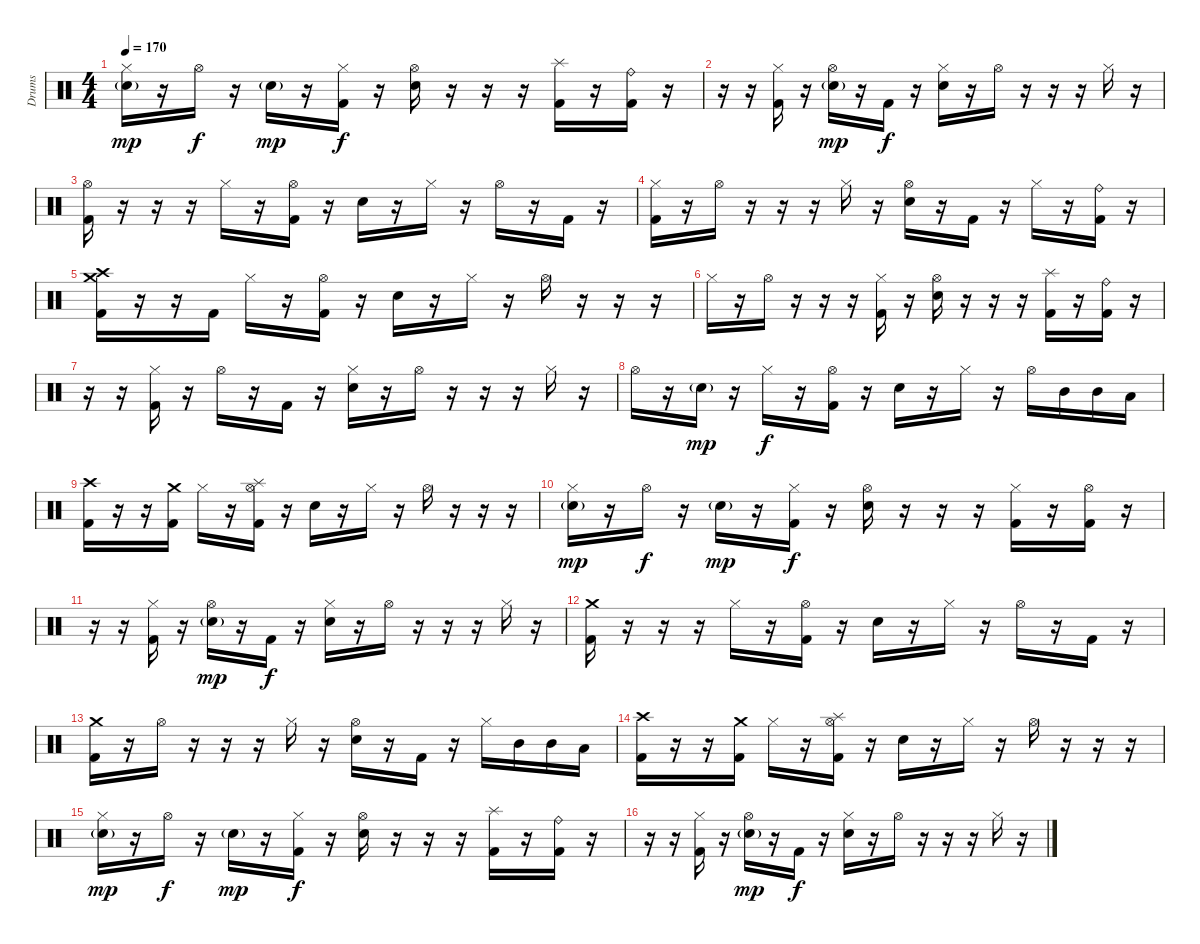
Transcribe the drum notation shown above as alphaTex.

\track ("Drums" "Drums") {instrument percussion}
\staff {score}
\articulation defaults
\ts (4 4)
\tempo 170
\clef neutral
\ks c
("Hi-Hat (closed)" "Electric Snare (hit)"{g}).16{dy mp} r.16 "Hi-Hat (open)".16{dy f} r.16 "Electric Snare (hit)"{g}.16{dy mp} r.16 ("Hi-Hat (closed)" "Kick (hit) 2").16{dy f} r.16 ("Hi-Hat (open)" "Electric Snare (hit)").16 r.16 r.16 r.16 ("Splash (hit)" "Kick (hit) 2").16 r.16 ("Ride (bell)" "Kick (hit) 2").16 r.16 |
r.16 r.16 ("Hi-Hat (closed)" "Kick (hit) 2").16 r.16 ("Hi-Hat (open)" "Electric Snare (hit)"{g}).16{dy mp} r.16 "Kick (hit) 2".16{dy f} r.16 ("Hi-Hat (closed)" "Electric Snare (hit)").16 r.16 "Hi-Hat (open)".16 r.16 r.16 r.16 "Hi-Hat (closed)".16 r.16 |
("Hi-Hat (open)" "Kick (hit) 2").16 r.16 r.16 r.16 "Hi-Hat (closed)".16 r.16 ("Hi-Hat (open)" "Kick (hit) 2").16 r.16 "Electric Snare (hit)".16 r.16 "Hi-Hat (closed)".16 r.16 "Hi-Hat (open)".16 r.16 "Kick (hit) 2".16 r.16 |
("Hi-Hat (closed)" "Kick (hit) 2").16 r.16 "Hi-Hat (open)".16 r.16 r.16 r.16 "Hi-Hat (closed)".16 r.16 ("Hi-Hat (open)" "Electric Snare (hit)").16 r.16 "Kick (hit) 2".16 r.16 "Hi-Hat (closed)".16 r.16 ("Ride (bell)" "Kick (hit) 2").16 r.16 |
("Crash medium (hit)" "Crash high (hit)" "Kick (hit) 2").16 r.16 r.16 "Kick (hit) 2".16 "Hi-Hat (closed)".16 r.16 ("Hi-Hat (open)" "Kick (hit) 2").16 r.16 "Electric Snare (hit)".16 r.16 "Hi-Hat (closed)".16 r.16 "Hi-Hat (open)".16 r.16 r.16 r.16 |
"Hi-Hat (closed)".16 r.16 "Hi-Hat (open)".16 r.16 r.16 r.16 ("Hi-Hat (closed)" "Kick (hit) 2").16 r.16 ("Hi-Hat (open)" "Electric Snare (hit)").16 r.16 r.16 r.16 ("Splash (hit)" "Kick (hit) 2").16 r.16 ("Ride (bell)" "Kick (hit) 2").16 r.16 |
r.16 r.16 ("Hi-Hat (closed)" "Kick (hit) 2").16 r.16 "Hi-Hat (open)".16 r.16 "Kick (hit) 2".16 r.16 ("Hi-Hat (closed)" "Electric Snare (hit)").16 r.16 "Hi-Hat (open)".16 r.16 r.16 r.16 "Hi-Hat (closed)".16 r.16 |
"Hi-Hat (open)".16 r.16 "Electric Snare (hit)"{g}.16{dy mp} r.16 "Hi-Hat (closed)".16{dy f} r.16 ("Hi-Hat (open)" "Kick (hit) 2").16 r.16 "Electric Snare (hit)".16 r.16 "Hi-Hat (closed)".16 r.16 "Hi-Hat (open)".16 "Mid Tom (hit)".16 "Mid Tom (hit)".16 "Low Tom (hit)".16 |
("Crash high (hit)" "Kick (hit) 2").16 r.16 r.16 ("Crash medium (hit)" "Kick (hit) 2").16 "Hi-Hat (closed)".16 r.16 ("Splash (hit)" "Hi-Hat (open)" "Kick (hit) 2").16 r.16 "Electric Snare (hit)".16 r.16 "Hi-Hat (closed)".16 r.16 "Hi-Hat (open)".16 r.16 r.16 r.16 |
("Hi-Hat (closed)" "Electric Snare (hit)"{g}).16{dy mp} r.16 "Hi-Hat (open)".16{dy f} r.16 "Electric Snare (hit)"{g}.16{dy mp} r.16 ("Hi-Hat (closed)" "Kick (hit) 2").16{dy f} r.16 ("Hi-Hat (open)" "Electric Snare (hit)").16 r.16 r.16 r.16 ("Hi-Hat (closed)" "Kick (hit) 2").16 r.16 ("Hi-Hat (open)" "Kick (hit) 2").16 r.16 |
r.16 r.16 ("Hi-Hat (closed)" "Kick (hit) 2").16 r.16 ("Hi-Hat (open)" "Electric Snare (hit)"{g}).16{dy mp} r.16 "Kick (hit) 2".16{dy f} r.16 ("Hi-Hat (closed)" "Electric Snare (hit)").16 r.16 "Hi-Hat (open)".16 r.16 r.16 r.16 "Hi-Hat (closed)".16 r.16 |
("Crash medium (hit)" "Kick (hit) 2").16 r.16 r.16 r.16 "Hi-Hat (closed)".16 r.16 ("Hi-Hat (open)" "Kick (hit) 2").16 r.16 "Electric Snare (hit)".16 r.16 "Hi-Hat (closed)".16 r.16 "Hi-Hat (open)".16 r.16 "Kick (hit) 2".16 r.16 |
("Crash medium (hit)" "Kick (hit) 2").16 r.16 "Hi-Hat (open)".16 r.16 r.16 r.16 "Hi-Hat (closed)".16 r.16 ("Hi-Hat (open)" "Electric Snare (hit)").16 r.16 "Kick (hit) 2".16 r.16 "Hi-Hat (closed)".16 "Mid Tom (hit)".16 "Mid Tom (hit)".16 "Low Tom (hit)".16 |
("Crash high (hit)" "Kick (hit) 2").16 r.16 r.16 ("Crash medium (hit)" "Kick (hit) 2").16 "Hi-Hat (closed)".16 r.16 ("Splash (hit)" "Hi-Hat (open)" "Kick (hit) 2").16 r.16 "Electric Snare (hit)".16 r.16 "Hi-Hat (closed)".16 r.16 "Hi-Hat (open)".16 r.16 r.16 r.16 |
("Hi-Hat (closed)" "Electric Snare (hit)"{g}).16{dy mp} r.16 "Hi-Hat (open)".16{dy f} r.16 "Electric Snare (hit)"{g}.16{dy mp} r.16 ("Hi-Hat (closed)" "Kick (hit) 2").16{dy f} r.16 ("Hi-Hat (open)" "Electric Snare (hit)").16 r.16 r.16 r.16 ("Splash (hit)" "Kick (hit) 2").16 r.16 ("Ride (bell)" "Kick (hit) 2").16 r.16 |
r.16 r.16 ("Hi-Hat (closed)" "Kick (hit) 2").16 r.16 ("Hi-Hat (open)" "Electric Snare (hit)"{g}).16{dy mp} r.16 "Kick (hit) 2".16{dy f} r.16 ("Hi-Hat (closed)" "Electric Snare (hit)").16 r.16 "Hi-Hat (open)".16 r.16 r.16 r.16 "Hi-Hat (closed)".16 r.16
